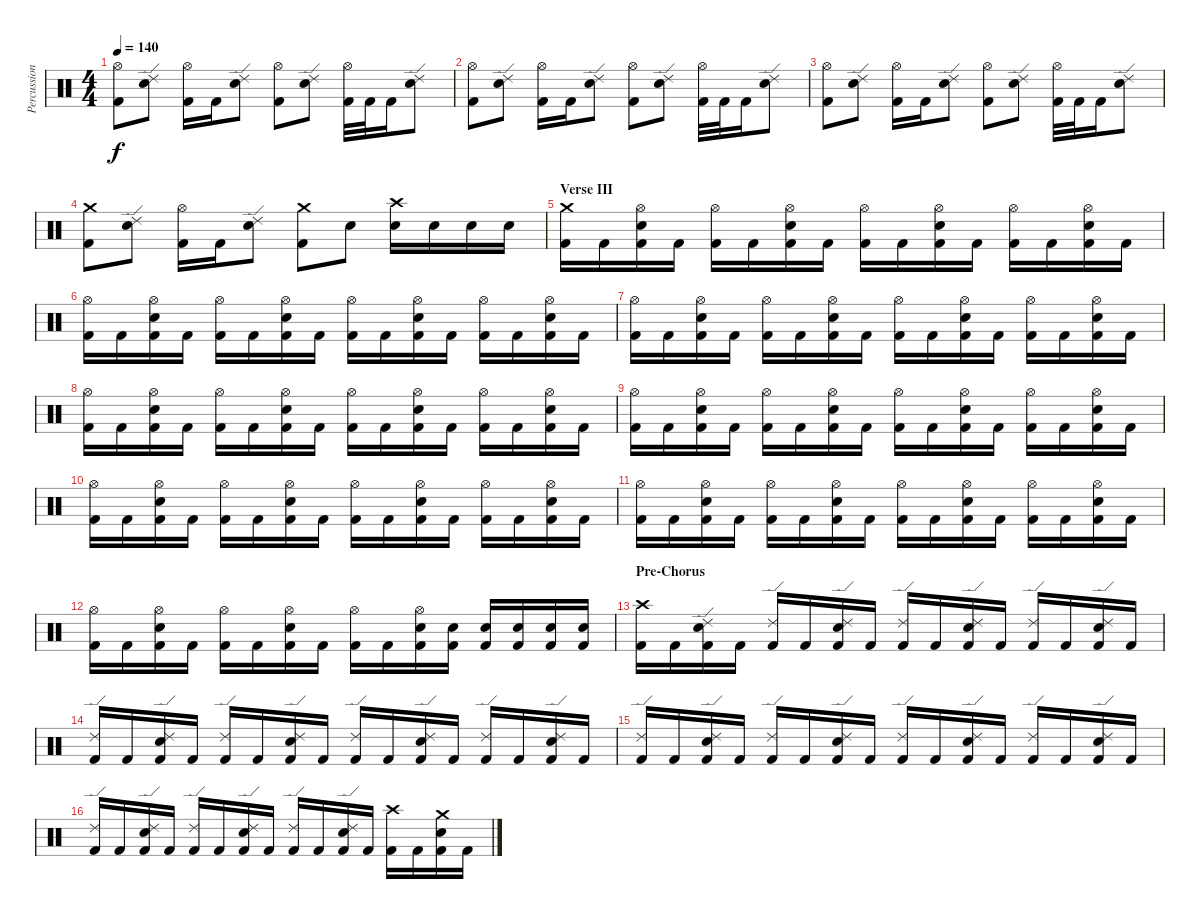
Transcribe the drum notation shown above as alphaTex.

\track ("Percussion" "Percussion") {instrument percussion}
\staff {score}
\articulation defaults
\ts (4 4)
\tempo 140
\clef neutral
\ks c
("Hi-Hat (open)" "Kick (hit) 2").8{dy f} ("Ride (edge) 2" "Electric Snare (hit)").8 ("Hi-Hat (open)" "Kick (hit) 2").16 "Kick (hit) 2".16 ("Ride (edge) 2" "Electric Snare (hit)").8 ("Hi-Hat (open)" "Kick (hit) 2").8 ("Ride (edge) 2" "Electric Snare (hit)").8 ("Hi-Hat (open)" "Kick (hit) 2").32 "Kick (hit) 2".32 "Kick (hit) 2".16 ("Ride (edge) 2" "Electric Snare (hit)").8 |
("Hi-Hat (open)" "Kick (hit) 2").8 ("Ride (edge) 2" "Electric Snare (hit)").8 ("Hi-Hat (open)" "Kick (hit) 2").16 "Kick (hit) 2".16 ("Ride (edge) 2" "Electric Snare (hit)").8 ("Hi-Hat (open)" "Kick (hit) 2").8 ("Ride (edge) 2" "Electric Snare (hit)").8 ("Hi-Hat (open)" "Kick (hit) 2").32 "Kick (hit) 2".32 "Kick (hit) 2".16 ("Ride (edge) 2" "Electric Snare (hit)").8 |
("Hi-Hat (open)" "Kick (hit) 2").8 ("Ride (edge) 2" "Electric Snare (hit)").8 ("Hi-Hat (open)" "Kick (hit) 2").16 "Kick (hit) 2".16 ("Ride (edge) 2" "Electric Snare (hit)").8 ("Hi-Hat (open)" "Kick (hit) 2").8 ("Ride (edge) 2" "Electric Snare (hit)").8 ("Hi-Hat (open)" "Kick (hit) 2").32 "Kick (hit) 2".32 "Kick (hit) 2".16 ("Ride (edge) 2" "Electric Snare (hit)").8 |
("Crash medium (hit)" "Kick (hit) 2").8 ("Ride (edge) 2" "Electric Snare (hit)").8 ("Hi-Hat (open)" "Kick (hit) 2").16 "Kick (hit) 2".16 ("Ride (edge) 2" "Electric Snare (hit)").8 ("Crash medium (hit)" "Kick (hit) 2").8 "Electric Snare (hit)".8 ("Crash high (hit)" "Electric Snare (hit)").16 "Electric Snare (hit)".16 "Electric Snare (hit)".16 "Electric Snare (hit)".16 |
\section ("" "Verse III")
("Crash medium (hit)" "Kick (hit) 2").16 "Kick (hit) 2".16 ("Hi-Hat (open)" "Electric Snare (hit)" "Kick (hit) 2").16 "Kick (hit) 2".16 ("Hi-Hat (open)" "Kick (hit) 2").16 "Kick (hit) 2".16 ("Hi-Hat (open)" "Electric Snare (hit)" "Kick (hit) 2").16 "Kick (hit) 2".16 ("Hi-Hat (open)" "Kick (hit) 2").16 "Kick (hit) 2".16 ("Hi-Hat (open)" "Electric Snare (hit)" "Kick (hit) 2").16 "Kick (hit) 2".16 ("Hi-Hat (open)" "Kick (hit) 2").16 "Kick (hit) 2".16 ("Hi-Hat (open)" "Electric Snare (hit)" "Kick (hit) 2").16 "Kick (hit) 2".16 |
("Hi-Hat (open)" "Kick (hit) 2").16 "Kick (hit) 2".16 ("Hi-Hat (open)" "Electric Snare (hit)" "Kick (hit) 2").16 "Kick (hit) 2".16 ("Hi-Hat (open)" "Kick (hit) 2").16 "Kick (hit) 2".16 ("Hi-Hat (open)" "Electric Snare (hit)" "Kick (hit) 2").16 "Kick (hit) 2".16 ("Hi-Hat (open)" "Kick (hit) 2").16 "Kick (hit) 2".16 ("Hi-Hat (open)" "Electric Snare (hit)" "Kick (hit) 2").16 "Kick (hit) 2".16 ("Hi-Hat (open)" "Kick (hit) 2").16 "Kick (hit) 2".16 ("Hi-Hat (open)" "Electric Snare (hit)" "Kick (hit) 2").16 "Kick (hit) 2".16 |
("Hi-Hat (open)" "Kick (hit) 2").16 "Kick (hit) 2".16 ("Hi-Hat (open)" "Electric Snare (hit)" "Kick (hit) 2").16 "Kick (hit) 2".16 ("Hi-Hat (open)" "Kick (hit) 2").16 "Kick (hit) 2".16 ("Hi-Hat (open)" "Electric Snare (hit)" "Kick (hit) 2").16 "Kick (hit) 2".16 ("Hi-Hat (open)" "Kick (hit) 2").16 "Kick (hit) 2".16 ("Hi-Hat (open)" "Electric Snare (hit)" "Kick (hit) 2").16 "Kick (hit) 2".16 ("Hi-Hat (open)" "Kick (hit) 2").16 "Kick (hit) 2".16 ("Hi-Hat (open)" "Electric Snare (hit)" "Kick (hit) 2").16 "Kick (hit) 2".16 |
("Hi-Hat (open)" "Kick (hit) 2").16 "Kick (hit) 2".16 ("Hi-Hat (open)" "Electric Snare (hit)" "Kick (hit) 2").16 "Kick (hit) 2".16 ("Hi-Hat (open)" "Kick (hit) 2").16 "Kick (hit) 2".16 ("Hi-Hat (open)" "Electric Snare (hit)" "Kick (hit) 2").16 "Kick (hit) 2".16 ("Hi-Hat (open)" "Kick (hit) 2").16 "Kick (hit) 2".16 ("Hi-Hat (open)" "Electric Snare (hit)" "Kick (hit) 2").16 "Kick (hit) 2".16 ("Hi-Hat (open)" "Kick (hit) 2").16 "Kick (hit) 2".16 ("Hi-Hat (open)" "Electric Snare (hit)" "Kick (hit) 2").16 "Kick (hit) 2".16 |
("Hi-Hat (open)" "Kick (hit) 2").16 "Kick (hit) 2".16 ("Hi-Hat (open)" "Electric Snare (hit)" "Kick (hit) 2").16 "Kick (hit) 2".16 ("Hi-Hat (open)" "Kick (hit) 2").16 "Kick (hit) 2".16 ("Hi-Hat (open)" "Electric Snare (hit)" "Kick (hit) 2").16 "Kick (hit) 2".16 ("Hi-Hat (open)" "Kick (hit) 2").16 "Kick (hit) 2".16 ("Hi-Hat (open)" "Electric Snare (hit)" "Kick (hit) 2").16 "Kick (hit) 2".16 ("Hi-Hat (open)" "Kick (hit) 2").16 "Kick (hit) 2".16 ("Hi-Hat (open)" "Electric Snare (hit)" "Kick (hit) 2").16 "Kick (hit) 2".16 |
("Hi-Hat (open)" "Kick (hit) 2").16 "Kick (hit) 2".16 ("Hi-Hat (open)" "Electric Snare (hit)" "Kick (hit) 2").16 "Kick (hit) 2".16 ("Hi-Hat (open)" "Kick (hit) 2").16 "Kick (hit) 2".16 ("Hi-Hat (open)" "Electric Snare (hit)" "Kick (hit) 2").16 "Kick (hit) 2".16 ("Hi-Hat (open)" "Kick (hit) 2").16 "Kick (hit) 2".16 ("Hi-Hat (open)" "Electric Snare (hit)" "Kick (hit) 2").16 "Kick (hit) 2".16 ("Hi-Hat (open)" "Kick (hit) 2").16 "Kick (hit) 2".16 ("Hi-Hat (open)" "Electric Snare (hit)" "Kick (hit) 2").16 "Kick (hit) 2".16 |
("Hi-Hat (open)" "Kick (hit) 2").16 "Kick (hit) 2".16 ("Hi-Hat (open)" "Electric Snare (hit)" "Kick (hit) 2").16 "Kick (hit) 2".16 ("Hi-Hat (open)" "Kick (hit) 2").16 "Kick (hit) 2".16 ("Hi-Hat (open)" "Electric Snare (hit)" "Kick (hit) 2").16 "Kick (hit) 2".16 ("Hi-Hat (open)" "Kick (hit) 2").16 "Kick (hit) 2".16 ("Hi-Hat (open)" "Electric Snare (hit)" "Kick (hit) 2").16 "Kick (hit) 2".16 ("Hi-Hat (open)" "Kick (hit) 2").16 "Kick (hit) 2".16 ("Hi-Hat (open)" "Electric Snare (hit)" "Kick (hit) 2").16 "Kick (hit) 2".16 |
("Hi-Hat (open)" "Kick (hit) 2").16 "Kick (hit) 2".16 ("Hi-Hat (open)" "Electric Snare (hit)" "Kick (hit) 2").16 "Kick (hit) 2".16 ("Hi-Hat (open)" "Kick (hit) 2").16 "Kick (hit) 2".16 ("Hi-Hat (open)" "Electric Snare (hit)" "Kick (hit) 2").16 "Kick (hit) 2".16 ("Hi-Hat (open)" "Kick (hit) 2").16 "Kick (hit) 2".16 ("Hi-Hat (open)" "Electric Snare (hit)" "Kick (hit) 2").16 ("Electric Snare (hit)" "Kick (hit) 2").16 ("Electric Snare (hit)" "Kick (hit) 2").16 ("Electric Snare (hit)" "Kick (hit) 2").16 ("Electric Snare (hit)" "Kick (hit) 2").16 ("Electric Snare (hit)" "Kick (hit) 2").16 |
\section ("" "Pre-Chorus")
("Crash high (hit)" "Kick (hit) 2").16 "Kick (hit) 2".16 ("Ride (edge) 2" "Electric Snare (hit)" "Kick (hit) 2").16 "Kick (hit) 2".16 ("Ride (edge) 2" "Kick (hit) 2").16 "Kick (hit) 2".16 ("Ride (edge) 2" "Electric Snare (hit)" "Kick (hit) 2").16 "Kick (hit) 2".16 ("Ride (edge) 2" "Kick (hit) 2").16 "Kick (hit) 2".16 ("Ride (edge) 2" "Electric Snare (hit)" "Kick (hit) 2").16 "Kick (hit) 2".16 ("Ride (edge) 2" "Kick (hit) 2").16 "Kick (hit) 2".16 ("Ride (edge) 2" "Electric Snare (hit)" "Kick (hit) 2").16 "Kick (hit) 2".16 |
("Ride (edge) 2" "Kick (hit) 2").16 "Kick (hit) 2".16 ("Ride (edge) 2" "Electric Snare (hit)" "Kick (hit) 2").16 "Kick (hit) 2".16 ("Ride (edge) 2" "Kick (hit) 2").16 "Kick (hit) 2".16 ("Ride (edge) 2" "Electric Snare (hit)" "Kick (hit) 2").16 "Kick (hit) 2".16 ("Ride (edge) 2" "Kick (hit) 2").16 "Kick (hit) 2".16 ("Ride (edge) 2" "Electric Snare (hit)" "Kick (hit) 2").16 "Kick (hit) 2".16 ("Ride (edge) 2" "Kick (hit) 2").16 "Kick (hit) 2".16 ("Ride (edge) 2" "Electric Snare (hit)" "Kick (hit) 2").16 "Kick (hit) 2".16 |
("Ride (edge) 2" "Kick (hit) 2").16 "Kick (hit) 2".16 ("Ride (edge) 2" "Electric Snare (hit)" "Kick (hit) 2").16 "Kick (hit) 2".16 ("Ride (edge) 2" "Kick (hit) 2").16 "Kick (hit) 2".16 ("Ride (edge) 2" "Electric Snare (hit)" "Kick (hit) 2").16 "Kick (hit) 2".16 ("Ride (edge) 2" "Kick (hit) 2").16 "Kick (hit) 2".16 ("Ride (edge) 2" "Electric Snare (hit)" "Kick (hit) 2").16 "Kick (hit) 2".16 ("Ride (edge) 2" "Kick (hit) 2").16 "Kick (hit) 2".16 ("Ride (edge) 2" "Electric Snare (hit)" "Kick (hit) 2").16 "Kick (hit) 2".16 |
("Ride (edge) 2" "Kick (hit) 2").16 "Kick (hit) 2".16 ("Ride (edge) 2" "Electric Snare (hit)" "Kick (hit) 2").16 "Kick (hit) 2".16 ("Ride (edge) 2" "Kick (hit) 2").16 "Kick (hit) 2".16 ("Ride (edge) 2" "Electric Snare (hit)" "Kick (hit) 2").16 "Kick (hit) 2".16 ("Ride (edge) 2" "Kick (hit) 2").16 "Kick (hit) 2".16 ("Ride (edge) 2" "Electric Snare (hit)" "Kick (hit) 2").16 "Kick (hit) 2".16 ("Crash high (hit)" "Kick (hit) 2").16 "Kick (hit) 2".16 ("Crash medium (hit)" "Electric Snare (hit)" "Kick (hit) 2").16 "Kick (hit) 2".16
